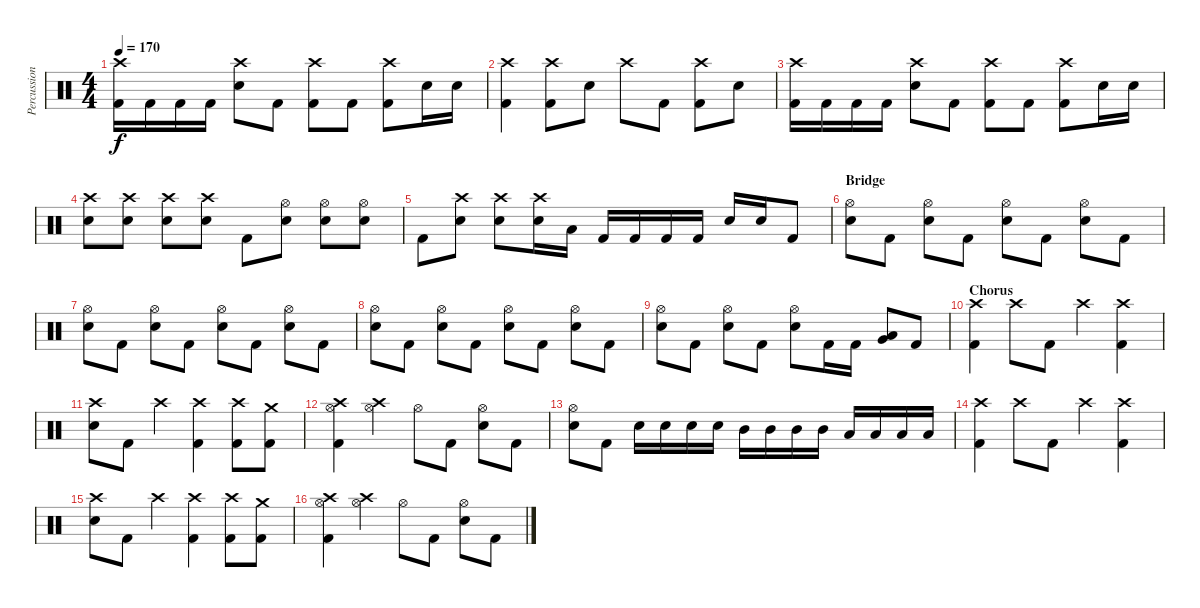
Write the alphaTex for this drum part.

\track ("Percussion" "Percussion") {instrument percussion}
\staff {score}
\articulation defaults
\ts (4 4)
\tempo 170
\clef neutral
\ks c
("Crash high (hit)" "Kick (hit) 2").16{dy f} "Kick (hit) 2".16 "Kick (hit) 2".16 "Kick (hit) 2".16 ("Crash high (hit)" "Electric Snare (hit)").8 "Kick (hit) 2".8 ("Crash high (hit)" "Kick (hit) 2").8 "Kick (hit) 2".8 ("Crash high (hit)" "Kick (hit) 2").8 "Electric Snare (hit)".16 "Electric Snare (hit)".16 |
("Crash high (hit)" "Kick (hit) 2").4 ("Crash high (hit)" "Kick (hit) 2").8 "Electric Snare (hit)".8 "Crash high (hit)".8 "Kick (hit) 2".8 ("Crash high (hit)" "Kick (hit) 2").8 "Electric Snare (hit)".8 |
("Crash high (hit)" "Kick (hit) 2").16 "Kick (hit) 2".16 "Kick (hit) 2".16 "Kick (hit) 2".16 ("Crash high (hit)" "Electric Snare (hit)").8 "Kick (hit) 2".8 ("Crash high (hit)" "Kick (hit) 2").8 "Kick (hit) 2".8 ("Crash high (hit)" "Kick (hit) 2").8 "Electric Snare (hit)".16 "Electric Snare (hit)".16 |
("Crash high (hit)" "Electric Snare (hit)").8 ("Crash high (hit)" "Electric Snare (hit)").8 ("Crash high (hit)" "Electric Snare (hit)").8 ("Crash high (hit)" "Electric Snare (hit)").8 "Kick (hit) 2".8 ("Hi-Hat (open)" "Electric Snare (hit)").8 ("Hi-Hat (open)" "Electric Snare (hit)").8 ("Hi-Hat (open)" "Electric Snare (hit)").8 |
"Kick (hit) 2".8 ("Crash high (hit)" "Electric Snare (hit)").8 ("Crash high (hit)" "Electric Snare (hit)").8 ("Crash high (hit)" "Electric Snare (hit)").16 "Low Tom (hit)".16 "Kick (hit) 2".16 "Kick (hit) 2".16 "Kick (hit) 2".16 "Kick (hit) 2".16 "Electric Snare (hit)".16 "Electric Snare (hit)".16 "Kick (hit) 2".8 |
\section ("" "Bridge")
("Hi-Hat (open)" "Electric Snare (hit)").8 "Kick (hit) 2".8 ("Hi-Hat (open)" "Electric Snare (hit)").8 "Kick (hit) 2".8 ("Hi-Hat (open)" "Electric Snare (hit)").8 "Kick (hit) 2".8 ("Hi-Hat (open)" "Electric Snare (hit)").8 "Kick (hit) 2".8 |
("Hi-Hat (open)" "Electric Snare (hit)").8 "Kick (hit) 2".8 ("Hi-Hat (open)" "Electric Snare (hit)").8 "Kick (hit) 2".8 ("Hi-Hat (open)" "Electric Snare (hit)").8 "Kick (hit) 2".8 ("Hi-Hat (open)" "Electric Snare (hit)").8 "Kick (hit) 2".8 |
("Hi-Hat (open)" "Electric Snare (hit)").8 "Kick (hit) 2".8 ("Hi-Hat (open)" "Electric Snare (hit)").8 "Kick (hit) 2".8 ("Hi-Hat (open)" "Electric Snare (hit)").8 "Kick (hit) 2".8 ("Hi-Hat (open)" "Electric Snare (hit)").8 "Kick (hit) 2".8 |
("Hi-Hat (open)" "Electric Snare (hit)").8 "Kick (hit) 2".8 ("Hi-Hat (open)" "Electric Snare (hit)").8 "Kick (hit) 2".8 ("Hi-Hat (open)" "Electric Snare (hit)").8 "Kick (hit) 2".16 "Kick (hit) 2".16 ("Low Tom (hit)" "Very Low Tom (hit)").8 "Kick (hit) 2".8 |
\section ("" "Chorus")
("Crash high (hit)" "Kick (hit) 2").4 "Crash high (hit)".8 "Kick (hit) 2".8 "Crash high (hit)".4 ("Crash high (hit)" "Kick (hit) 2").4 |
("Crash high (hit)" "Electric Snare (hit)").8 "Kick (hit) 2".8 "Crash high (hit)".4 ("Crash high (hit)" "Kick (hit) 2").4 ("Crash high (hit)" "Kick (hit) 2").8 ("Crash medium (hit)" "Kick (hit) 2").8 |
("Hi-Hat (open)" "Crash high (hit)" "Kick (hit) 2").4 ("Hi-Hat (open)" "Crash high (hit)").4 "Hi-Hat (open)".8 "Kick (hit) 2".8 ("Hi-Hat (open)" "Electric Snare (hit)").8 "Kick (hit) 2".8 |
("Hi-Hat (open)" "Electric Snare (hit)").8 "Kick (hit) 2".8 "Electric Snare (hit)".16 "Electric Snare (hit)".16 "Electric Snare (hit)".16 "Electric Snare (hit)".16 "Mid Tom (hit)".16 "Mid Tom (hit)".16 "Mid Tom (hit)".16 "Mid Tom (hit)".16 "Low Tom (hit)".16 "Low Tom (hit)".16 "Low Tom (hit)".16 "Low Tom (hit)".16 |
("Crash high (hit)" "Kick (hit) 2").4 "Crash high (hit)".8 "Kick (hit) 2".8 "Crash high (hit)".4 ("Crash high (hit)" "Kick (hit) 2").4 |
("Crash high (hit)" "Electric Snare (hit)").8 "Kick (hit) 2".8 "Crash high (hit)".4 ("Crash high (hit)" "Kick (hit) 2").4 ("Crash high (hit)" "Kick (hit) 2").8 ("Crash medium (hit)" "Kick (hit) 2").8 |
("Hi-Hat (open)" "Crash high (hit)" "Kick (hit) 2").4 ("Hi-Hat (open)" "Crash high (hit)").4 "Hi-Hat (open)".8 "Kick (hit) 2".8 ("Hi-Hat (open)" "Electric Snare (hit)").8 "Kick (hit) 2".8
